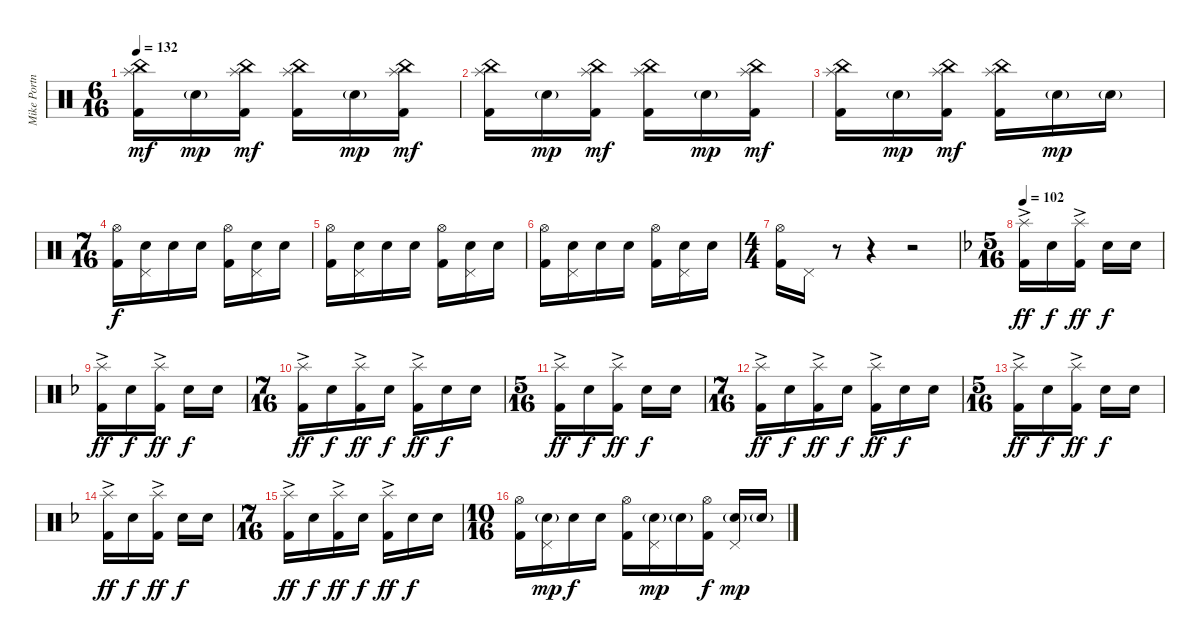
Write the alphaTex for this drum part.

\track ("Mike Portnoy" "Mike Portn") {instrument percussion}
\staff {score}
\articulation defaults
\ts (6 16)
\tempo 132
\clef neutral
\ks c
("Splash (hit)" "China (hit)" "Kick (hit) 2").16{dy mf} "Electric Snare (hit)"{g}.16{dy mp} ("Splash (hit)" "China (hit)" "Kick (hit) 2").16{dy mf} ("Splash (hit)" "China (hit)" "Kick (hit) 2").16 "Electric Snare (hit)"{g}.16{dy mp} ("Splash (hit)" "China (hit)" "Kick (hit) 2").16{dy mf} |
("Splash (hit)" "China (hit)" "Kick (hit) 2").16 "Electric Snare (hit)"{g}.16{dy mp} ("Splash (hit)" "China (hit)" "Kick (hit) 2").16{dy mf} ("Splash (hit)" "China (hit)" "Kick (hit) 2").16 "Electric Snare (hit)"{g}.16{dy mp} ("Splash (hit)" "China (hit)" "Kick (hit) 2").16{dy mf} |
("Splash (hit)" "China (hit)" "Kick (hit) 2").16 "Electric Snare (hit)"{g}.16{dy mp} ("Splash (hit)" "China (hit)" "Kick (hit) 2").16{dy mf} ("Splash (hit)" "China (hit)" "Kick (hit) 2").16 "Electric Snare (hit)"{g}.16{dy mp} "Electric Snare (hit)"{g}.16 |
\ts (7 16)
("Hi-Hat (open)" "Kick (hit) 2").16{dy f} ("Pedal Hi-Hat (hit)" "Electric Snare (hit)").16 "Electric Snare (hit)".16 "Electric Snare (hit)".16 ("Hi-Hat (open)" "Kick (hit) 2").16 ("Pedal Hi-Hat (hit)" "Electric Snare (hit)").16 "Electric Snare (hit)".16 |
("Hi-Hat (open)" "Kick (hit) 2").16 ("Pedal Hi-Hat (hit)" "Electric Snare (hit)").16 "Electric Snare (hit)".16 "Electric Snare (hit)".16 ("Hi-Hat (open)" "Kick (hit) 2").16 ("Pedal Hi-Hat (hit)" "Electric Snare (hit)").16 "Electric Snare (hit)".16 |
("Hi-Hat (open)" "Kick (hit) 2").16 ("Pedal Hi-Hat (hit)" "Electric Snare (hit)").16 "Electric Snare (hit)".16 "Electric Snare (hit)".16 ("Hi-Hat (open)" "Kick (hit) 2").16 ("Pedal Hi-Hat (hit)" "Electric Snare (hit)").16 "Electric Snare (hit)".16 |
\ts (4 4)
("Hi-Hat (open)" "Kick (hit) 2").16 "Pedal Hi-Hat (hit)".16 r.8 r.4 r.2 |
\ts (5 16)
\tempo 102
\ks f
("Splash (hit)"{ac} "Kick (hit) 2"{ac}).16{dy ff} "Electric Snare (hit)".16{dy f} ("Splash (hit)"{ac} "Kick (hit) 2"{ac}).16{dy ff} "Electric Snare (hit)".16{dy f} "Electric Snare (hit)".16 |
("Splash (hit)"{ac} "Kick (hit) 2"{ac}).16{dy ff} "Electric Snare (hit)".16{dy f} ("Splash (hit)"{ac} "Kick (hit) 2"{ac}).16{dy ff} "Electric Snare (hit)".16{dy f} "Electric Snare (hit)".16 |
\ts (7 16)
("Splash (hit)"{ac} "Kick (hit) 2"{ac}).16{dy ff} "Electric Snare (hit)".16{dy f} ("Splash (hit)"{ac} "Kick (hit) 2"{ac}).16{dy ff} "Electric Snare (hit)".16{dy f} ("Splash (hit)"{ac} "Kick (hit) 2"{ac}).16{dy ff} "Electric Snare (hit)".16{dy f} "Electric Snare (hit)".16 |
\ts (5 16)
("Splash (hit)"{ac} "Kick (hit) 2"{ac}).16{dy ff} "Electric Snare (hit)".16{dy f} ("Splash (hit)"{ac} "Kick (hit) 2"{ac}).16{dy ff} "Electric Snare (hit)".16{dy f} "Electric Snare (hit)".16 |
\ts (7 16)
("Splash (hit)"{ac} "Kick (hit) 2"{ac}).16{dy ff} "Electric Snare (hit)".16{dy f} ("Splash (hit)"{ac} "Kick (hit) 2"{ac}).16{dy ff} "Electric Snare (hit)".16{dy f} ("Splash (hit)"{ac} "Kick (hit) 2"{ac}).16{dy ff} "Electric Snare (hit)".16{dy f} "Electric Snare (hit)".16 |
\ts (5 16)
("Splash (hit)"{ac} "Kick (hit) 2"{ac}).16{dy ff} "Electric Snare (hit)".16{dy f} ("Splash (hit)"{ac} "Kick (hit) 2"{ac}).16{dy ff} "Electric Snare (hit)".16{dy f} "Electric Snare (hit)".16 |
("Splash (hit)"{ac} "Kick (hit) 2"{ac}).16{dy ff} "Electric Snare (hit)".16{dy f} ("Splash (hit)"{ac} "Kick (hit) 2"{ac}).16{dy ff} "Electric Snare (hit)".16{dy f} "Electric Snare (hit)".16 |
\ts (7 16)
("Splash (hit)"{ac} "Kick (hit) 2"{ac}).16{dy ff} "Electric Snare (hit)".16{dy f} ("Splash (hit)"{ac} "Kick (hit) 2"{ac}).16{dy ff} "Electric Snare (hit)".16{dy f} ("Splash (hit)"{ac} "Kick (hit) 2"{ac}).16{dy ff} "Electric Snare (hit)".16{dy f} "Electric Snare (hit)".16 |
\ts (10 16)
("Hi-Hat (open)" "Kick (hit) 2").16 ("Pedal Hi-Hat (hit)" "Electric Snare (hit)"{g}).16{dy mp} "Electric Snare (hit)".16{dy f} "Electric Snare (hit)".16 ("Hi-Hat (open)" "Kick (hit) 2").16 ("Pedal Hi-Hat (hit)" "Electric Snare (hit)"{g}).16{dy mp} "Electric Snare (hit)"{g}.16 ("Hi-Hat (open)" "Kick (hit) 2").16{dy f} ("Pedal Hi-Hat (hit)" "Electric Snare (hit)"{g}).16{dy mp} "Electric Snare (hit)"{g}.16
